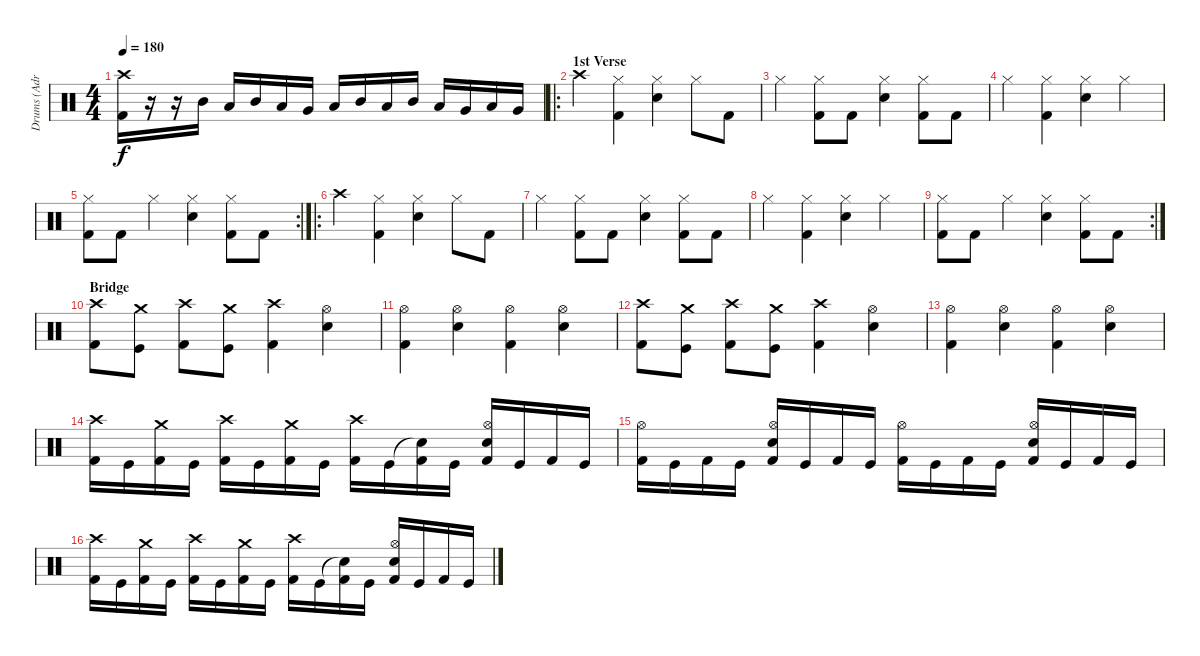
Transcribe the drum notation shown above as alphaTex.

\track ("Drums (Adrian)" "Drums (Adr") {instrument percussion}
\staff {score}
\articulation defaults
\ts (4 4)
\tempo 180
\clef neutral
\ks c
("Crash high (hit)" "Kick (hit) 2").16{dy f} r.16 r.16 "Mid Tom (hit)".16 "Low Tom (hit)".16 "Mid Tom (hit)".16 "Low Tom (hit)".16 "Very Low Tom (hit)".16 "Low Tom (hit)".16 "Mid Tom (hit)".16 "Low Tom (hit)".16 "Mid Tom (hit)".16 "Low Tom (hit)".16 "Very Low Tom (hit)".16 "Low Floor Tom (hit)".16 "Very Low Tom (hit)".16 |
\ro
\section ("" "1st Verse")
"Crash high (hit)".4 ("Hi-Hat (closed)" "Kick (hit) 2").4 ("Hi-Hat (closed)" "Snare (hit) 2").4 "Hi-Hat (closed)".8 "Kick (hit) 2".8 |
"Hi-Hat (closed)".4 ("Hi-Hat (closed)" "Kick (hit) 2").8 "Kick (hit) 2".8 ("Hi-Hat (closed)" "Snare (hit) 2").4 ("Hi-Hat (closed)" "Kick (hit) 2").8 "Kick (hit) 2".8 |
"Hi-Hat (closed)".4 ("Hi-Hat (closed)" "Kick (hit) 2").4 ("Hi-Hat (closed)" "Snare (hit) 2").4 "Hi-Hat (closed)".4 |
\rc 2
("Hi-Hat (closed)" "Kick (hit) 2").8 "Kick (hit) 2".8 "Hi-Hat (closed)".4 ("Hi-Hat (closed)" "Snare (hit) 2").4 ("Hi-Hat (closed)" "Kick (hit) 2").8 "Kick (hit) 2".8 |
\ro "Crash high (hit)".4
("Hi-Hat (closed)" "Kick (hit) 2").4 ("Hi-Hat (closed)" "Snare (hit) 2").4 "Hi-Hat (closed)".8 "Kick (hit) 2".8 |
"Hi-Hat (closed)".4 ("Hi-Hat (closed)" "Kick (hit) 2").8 "Kick (hit) 2".8 ("Hi-Hat (closed)" "Snare (hit) 2").4 ("Hi-Hat (closed)" "Kick (hit) 2").8 "Kick (hit) 2".8 |
"Hi-Hat (closed)".4 ("Hi-Hat (closed)" "Kick (hit) 2").4 ("Hi-Hat (closed)" "Snare (hit) 2").4 "Hi-Hat (closed)".4 |
\rc 2
("Hi-Hat (closed)" "Kick (hit) 2").8 "Kick (hit) 2".8 "Hi-Hat (closed)".4 ("Hi-Hat (closed)" "Snare (hit) 2").4 ("Hi-Hat (closed)" "Kick (hit) 2").8 "Kick (hit) 2".8 |
\section ("" "Bridge")
("Crash high (hit)" "Kick (hit) 2").8 ("Crash medium (hit)" "Kick (hit)").8 ("Crash high (hit)" "Kick (hit) 2").8 ("Crash medium (hit)" "Kick (hit)").8 ("Crash high (hit)" "Kick (hit) 2").4 ("Hi-Hat (open)" "Electric Snare (hit)").4 |
("Hi-Hat (open)" "Kick (hit) 2").4 ("Hi-Hat (open)" "Electric Snare (hit)").4 ("Hi-Hat (open)" "Kick (hit) 2").4 ("Hi-Hat (open)" "Electric Snare (hit)").4 |
("Crash high (hit)" "Kick (hit) 2").8 ("Crash medium (hit)" "Kick (hit)").8 ("Crash high (hit)" "Kick (hit) 2").8 ("Crash medium (hit)" "Kick (hit)").8 ("Crash high (hit)" "Kick (hit) 2").4 ("Hi-Hat (open)" "Electric Snare (hit)").4 |
("Hi-Hat (open)" "Kick (hit) 2").4 ("Hi-Hat (open)" "Electric Snare (hit)").4 ("Hi-Hat (open)" "Kick (hit) 2").4 ("Hi-Hat (open)" "Electric Snare (hit)").4 |
("Crash high (hit)" "Kick (hit) 2").16 "Kick (hit)".16 ("Crash medium (hit)" "Kick (hit) 2").16 "Kick (hit)".16 ("Crash high (hit)" "Kick (hit) 2").16 "Kick (hit)".16 ("Crash medium (hit)" "Kick (hit) 2").16 "Kick (hit)".16 ("Crash high (hit)" "Kick (hit) 2").16 "Kick (hit)".16 ("Snare (hit)"{t} "Kick (hit) 2").16 "Kick (hit)".16 ("Hi-Hat (open)" "Electric Snare (hit)" "Kick (hit) 2").16 "Kick (hit)".16 "Kick (hit) 2".16 "Kick (hit)".16 |
("Hi-Hat (open)" "Kick (hit) 2").16 "Kick (hit)".16 "Kick (hit) 2".16 "Kick (hit)".16 ("Hi-Hat (open)" "Electric Snare (hit)" "Kick (hit) 2").16 "Kick (hit)".16 "Kick (hit) 2".16 "Kick (hit)".16 ("Hi-Hat (open)" "Kick (hit) 2").16 "Kick (hit)".16 "Kick (hit) 2".16 "Kick (hit)".16 ("Hi-Hat (open)" "Electric Snare (hit)" "Kick (hit) 2").16 "Kick (hit)".16 "Kick (hit) 2".16 "Kick (hit)".16 |
("Crash high (hit)" "Kick (hit) 2").16 "Kick (hit)".16 ("Crash medium (hit)" "Kick (hit) 2").16 "Kick (hit)".16 ("Crash high (hit)" "Kick (hit) 2").16 "Kick (hit)".16 ("Crash medium (hit)" "Kick (hit) 2").16 "Kick (hit)".16 ("Crash high (hit)" "Kick (hit) 2").16 "Kick (hit)".16 ("Snare (hit)"{t} "Kick (hit) 2").16 "Kick (hit)".16 ("Hi-Hat (open)" "Electric Snare (hit)" "Kick (hit) 2").16 "Kick (hit)".16 "Kick (hit) 2".16 "Kick (hit)".16
